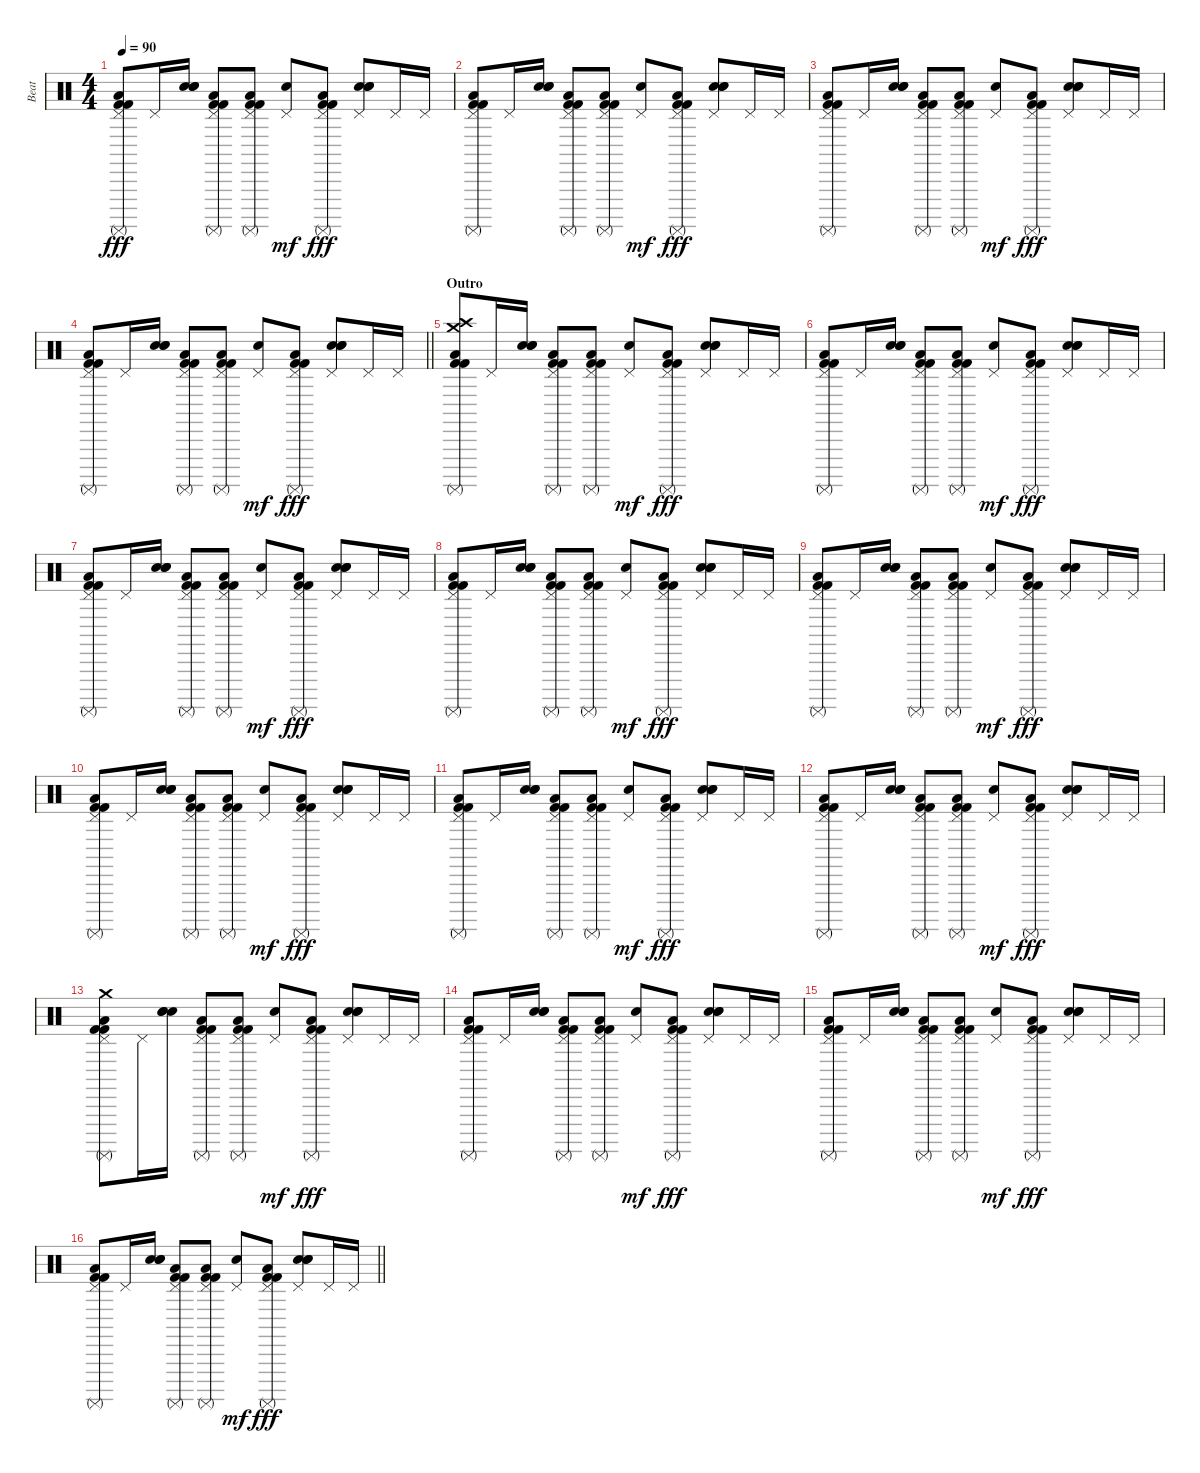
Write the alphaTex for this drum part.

\track ("Beat " "Beat ") {instrument percussion}
\staff {score}
\articulation defaults
\ts (4 4)
\tempo 90
\clef neutral
\ks c
("Pedal Hi-Hat (hit)" "Surdo (mute)" "Low Floor Tom (hit)" "Kick (hit) 2" "Kick (hit) 2").8{dy fff} "Pedal Hi-Hat (hit)".16 ("Electric Snare (hit)" "Electric Snare (hit)" "Electric Snare (hit)").16 ("Pedal Hi-Hat (hit)" "Surdo (mute)" "Low Floor Tom (hit)" "Kick (hit) 2" "Kick (hit) 2").8 ("Pedal Hi-Hat (hit)" "Surdo (mute)" "Low Floor Tom (hit)" "Kick (hit) 2" "Kick (hit) 2").8 ("Pedal Hi-Hat (hit)" "Electric Snare (hit)").8{dy mf} ("Pedal Hi-Hat (hit)" "Surdo (mute)" "Low Floor Tom (hit)" "Kick (hit) 2" "Kick (hit) 2").8{dy fff} ("Pedal Hi-Hat (hit)" "Electric Snare (hit)" "Electric Snare (hit)" "Electric Snare (hit)").8 "Pedal Hi-Hat (hit)".16 "Pedal Hi-Hat (hit)".16 |
("Pedal Hi-Hat (hit)" "Surdo (mute)" "Low Floor Tom (hit)" "Kick (hit) 2" "Kick (hit) 2").8 "Pedal Hi-Hat (hit)".16 ("Electric Snare (hit)" "Electric Snare (hit)" "Electric Snare (hit)").16 ("Pedal Hi-Hat (hit)" "Surdo (mute)" "Low Floor Tom (hit)" "Kick (hit) 2" "Kick (hit) 2").8 ("Pedal Hi-Hat (hit)" "Surdo (mute)" "Low Floor Tom (hit)" "Kick (hit) 2" "Kick (hit) 2").8 ("Pedal Hi-Hat (hit)" "Electric Snare (hit)").8{dy mf} ("Pedal Hi-Hat (hit)" "Surdo (mute)" "Low Floor Tom (hit)" "Kick (hit) 2" "Kick (hit) 2").8{dy fff} ("Pedal Hi-Hat (hit)" "Electric Snare (hit)" "Electric Snare (hit)" "Electric Snare (hit)").8 "Pedal Hi-Hat (hit)".16 "Pedal Hi-Hat (hit)".16 |
("Pedal Hi-Hat (hit)" "Surdo (mute)" "Low Floor Tom (hit)" "Kick (hit) 2" "Kick (hit) 2").8 "Pedal Hi-Hat (hit)".16 ("Electric Snare (hit)" "Electric Snare (hit)" "Electric Snare (hit)").16 ("Pedal Hi-Hat (hit)" "Surdo (mute)" "Low Floor Tom (hit)" "Kick (hit) 2" "Kick (hit) 2").8 ("Pedal Hi-Hat (hit)" "Surdo (mute)" "Low Floor Tom (hit)" "Kick (hit) 2" "Kick (hit) 2").8 ("Pedal Hi-Hat (hit)" "Electric Snare (hit)").8{dy mf} ("Pedal Hi-Hat (hit)" "Surdo (mute)" "Low Floor Tom (hit)" "Kick (hit) 2" "Kick (hit) 2").8{dy fff} ("Pedal Hi-Hat (hit)" "Electric Snare (hit)" "Electric Snare (hit)" "Electric Snare (hit)").8 "Pedal Hi-Hat (hit)".16 "Pedal Hi-Hat (hit)".16 |
\barLineRight lightlight
("Pedal Hi-Hat (hit)" "Surdo (mute)" "Low Floor Tom (hit)" "Kick (hit) 2" "Kick (hit) 2").8 "Pedal Hi-Hat (hit)".16 ("Electric Snare (hit)" "Electric Snare (hit)" "Electric Snare (hit)").16 ("Pedal Hi-Hat (hit)" "Surdo (mute)" "Low Floor Tom (hit)" "Kick (hit) 2" "Kick (hit) 2").8 ("Pedal Hi-Hat (hit)" "Surdo (mute)" "Low Floor Tom (hit)" "Kick (hit) 2" "Kick (hit) 2").8 ("Pedal Hi-Hat (hit)" "Electric Snare (hit)").8{dy mf} ("Pedal Hi-Hat (hit)" "Surdo (mute)" "Low Floor Tom (hit)" "Kick (hit) 2" "Kick (hit) 2").8{dy fff} ("Pedal Hi-Hat (hit)" "Electric Snare (hit)" "Electric Snare (hit)" "Electric Snare (hit)").8 "Pedal Hi-Hat (hit)".16 "Pedal Hi-Hat (hit)".16 |
\section ("" "Outro")
("Crash medium (hit)" "Crash high (hit)" "Surdo (mute)" "Low Floor Tom (hit)" "Kick (hit) 2" "Kick (hit) 2").8 "Pedal Hi-Hat (hit)".16 ("Electric Snare (hit)" "Electric Snare (hit)" "Electric Snare (hit)").16 ("Pedal Hi-Hat (hit)" "Surdo (mute)" "Low Floor Tom (hit)" "Kick (hit) 2" "Kick (hit) 2").8 ("Pedal Hi-Hat (hit)" "Surdo (mute)" "Low Floor Tom (hit)" "Kick (hit) 2" "Kick (hit) 2").8 ("Pedal Hi-Hat (hit)" "Electric Snare (hit)").8{dy mf} ("Pedal Hi-Hat (hit)" "Surdo (mute)" "Low Floor Tom (hit)" "Kick (hit) 2" "Kick (hit) 2").8{dy fff} ("Pedal Hi-Hat (hit)" "Electric Snare (hit)" "Electric Snare (hit)" "Electric Snare (hit)").8 "Pedal Hi-Hat (hit)".16 "Pedal Hi-Hat (hit)".16 |
("Pedal Hi-Hat (hit)" "Surdo (mute)" "Low Floor Tom (hit)" "Kick (hit) 2" "Kick (hit) 2").8 "Pedal Hi-Hat (hit)".16 ("Electric Snare (hit)" "Electric Snare (hit)" "Electric Snare (hit)").16 ("Pedal Hi-Hat (hit)" "Surdo (mute)" "Low Floor Tom (hit)" "Kick (hit) 2" "Kick (hit) 2").8 ("Pedal Hi-Hat (hit)" "Surdo (mute)" "Low Floor Tom (hit)" "Kick (hit) 2" "Kick (hit) 2").8 ("Pedal Hi-Hat (hit)" "Electric Snare (hit)").8{dy mf} ("Pedal Hi-Hat (hit)" "Surdo (mute)" "Low Floor Tom (hit)" "Kick (hit) 2" "Kick (hit) 2").8{dy fff} ("Pedal Hi-Hat (hit)" "Electric Snare (hit)" "Electric Snare (hit)" "Electric Snare (hit)").8 "Pedal Hi-Hat (hit)".16 "Pedal Hi-Hat (hit)".16 |
("Pedal Hi-Hat (hit)" "Surdo (mute)" "Low Floor Tom (hit)" "Kick (hit) 2" "Kick (hit) 2").8 "Pedal Hi-Hat (hit)".16 ("Electric Snare (hit)" "Electric Snare (hit)" "Electric Snare (hit)").16 ("Pedal Hi-Hat (hit)" "Surdo (mute)" "Low Floor Tom (hit)" "Kick (hit) 2" "Kick (hit) 2").8 ("Pedal Hi-Hat (hit)" "Surdo (mute)" "Low Floor Tom (hit)" "Kick (hit) 2" "Kick (hit) 2").8 ("Pedal Hi-Hat (hit)" "Electric Snare (hit)").8{dy mf} ("Pedal Hi-Hat (hit)" "Surdo (mute)" "Low Floor Tom (hit)" "Kick (hit) 2" "Kick (hit) 2").8{dy fff} ("Pedal Hi-Hat (hit)" "Electric Snare (hit)" "Electric Snare (hit)" "Electric Snare (hit)").8 "Pedal Hi-Hat (hit)".16 "Pedal Hi-Hat (hit)".16 |
("Pedal Hi-Hat (hit)" "Surdo (mute)" "Low Floor Tom (hit)" "Kick (hit) 2" "Kick (hit) 2").8 "Pedal Hi-Hat (hit)".16 ("Electric Snare (hit)" "Electric Snare (hit)" "Electric Snare (hit)").16 ("Pedal Hi-Hat (hit)" "Surdo (mute)" "Low Floor Tom (hit)" "Kick (hit) 2" "Kick (hit) 2").8 ("Pedal Hi-Hat (hit)" "Surdo (mute)" "Low Floor Tom (hit)" "Kick (hit) 2" "Kick (hit) 2").8 ("Pedal Hi-Hat (hit)" "Electric Snare (hit)").8{dy mf} ("Pedal Hi-Hat (hit)" "Surdo (mute)" "Low Floor Tom (hit)" "Kick (hit) 2" "Kick (hit) 2").8{dy fff} ("Pedal Hi-Hat (hit)" "Electric Snare (hit)" "Electric Snare (hit)" "Electric Snare (hit)").8 "Pedal Hi-Hat (hit)".16 "Pedal Hi-Hat (hit)".16 |
("Pedal Hi-Hat (hit)" "Surdo (mute)" "Low Floor Tom (hit)" "Kick (hit) 2" "Kick (hit) 2").8 "Pedal Hi-Hat (hit)".16 ("Electric Snare (hit)" "Electric Snare (hit)" "Electric Snare (hit)").16 ("Pedal Hi-Hat (hit)" "Surdo (mute)" "Low Floor Tom (hit)" "Kick (hit) 2" "Kick (hit) 2").8 ("Pedal Hi-Hat (hit)" "Surdo (mute)" "Low Floor Tom (hit)" "Kick (hit) 2" "Kick (hit) 2").8 ("Pedal Hi-Hat (hit)" "Electric Snare (hit)").8{dy mf} ("Pedal Hi-Hat (hit)" "Surdo (mute)" "Low Floor Tom (hit)" "Kick (hit) 2" "Kick (hit) 2").8{dy fff} ("Pedal Hi-Hat (hit)" "Electric Snare (hit)" "Electric Snare (hit)" "Electric Snare (hit)").8 "Pedal Hi-Hat (hit)".16 "Pedal Hi-Hat (hit)".16 |
("Pedal Hi-Hat (hit)" "Surdo (mute)" "Low Floor Tom (hit)" "Kick (hit) 2" "Kick (hit) 2").8 "Pedal Hi-Hat (hit)".16 ("Electric Snare (hit)" "Electric Snare (hit)" "Electric Snare (hit)").16 ("Pedal Hi-Hat (hit)" "Surdo (mute)" "Low Floor Tom (hit)" "Kick (hit) 2" "Kick (hit) 2").8 ("Pedal Hi-Hat (hit)" "Surdo (mute)" "Low Floor Tom (hit)" "Kick (hit) 2" "Kick (hit) 2").8 ("Pedal Hi-Hat (hit)" "Electric Snare (hit)").8{dy mf} ("Pedal Hi-Hat (hit)" "Surdo (mute)" "Low Floor Tom (hit)" "Kick (hit) 2" "Kick (hit) 2").8{dy fff} ("Pedal Hi-Hat (hit)" "Electric Snare (hit)" "Electric Snare (hit)" "Electric Snare (hit)").8 "Pedal Hi-Hat (hit)".16 "Pedal Hi-Hat (hit)".16 |
("Pedal Hi-Hat (hit)" "Surdo (mute)" "Low Floor Tom (hit)" "Kick (hit) 2" "Kick (hit) 2").8 "Pedal Hi-Hat (hit)".16 ("Electric Snare (hit)" "Electric Snare (hit)" "Electric Snare (hit)").16 ("Pedal Hi-Hat (hit)" "Surdo (mute)" "Low Floor Tom (hit)" "Kick (hit) 2" "Kick (hit) 2").8 ("Pedal Hi-Hat (hit)" "Surdo (mute)" "Low Floor Tom (hit)" "Kick (hit) 2" "Kick (hit) 2").8 ("Pedal Hi-Hat (hit)" "Electric Snare (hit)").8{dy mf} ("Pedal Hi-Hat (hit)" "Surdo (mute)" "Low Floor Tom (hit)" "Kick (hit) 2" "Kick (hit) 2").8{dy fff} ("Pedal Hi-Hat (hit)" "Electric Snare (hit)" "Electric Snare (hit)" "Electric Snare (hit)").8 "Pedal Hi-Hat (hit)".16 "Pedal Hi-Hat (hit)".16 |
("Pedal Hi-Hat (hit)" "Surdo (mute)" "Low Floor Tom (hit)" "Kick (hit) 2" "Kick (hit) 2").8 "Pedal Hi-Hat (hit)".16 ("Electric Snare (hit)" "Electric Snare (hit)" "Electric Snare (hit)").16 ("Pedal Hi-Hat (hit)" "Surdo (mute)" "Low Floor Tom (hit)" "Kick (hit) 2" "Kick (hit) 2").8 ("Pedal Hi-Hat (hit)" "Surdo (mute)" "Low Floor Tom (hit)" "Kick (hit) 2" "Kick (hit) 2").8 ("Pedal Hi-Hat (hit)" "Electric Snare (hit)").8{dy mf} ("Pedal Hi-Hat (hit)" "Surdo (mute)" "Low Floor Tom (hit)" "Kick (hit) 2" "Kick (hit) 2").8{dy fff} ("Pedal Hi-Hat (hit)" "Electric Snare (hit)" "Electric Snare (hit)" "Electric Snare (hit)").8 "Pedal Hi-Hat (hit)".16 "Pedal Hi-Hat (hit)".16 |
("Crash medium (hit)" "Pedal Hi-Hat (hit)" "Surdo (mute)" "Low Floor Tom (hit)" "Kick (hit) 2" "Kick (hit) 2").8 "Pedal Hi-Hat (hit)".16 ("Electric Snare (hit)" "Electric Snare (hit)" "Electric Snare (hit)").16 ("Pedal Hi-Hat (hit)" "Surdo (mute)" "Low Floor Tom (hit)" "Kick (hit) 2" "Kick (hit) 2").8 ("Pedal Hi-Hat (hit)" "Surdo (mute)" "Low Floor Tom (hit)" "Kick (hit) 2" "Kick (hit) 2").8 ("Pedal Hi-Hat (hit)" "Electric Snare (hit)").8{dy mf} ("Pedal Hi-Hat (hit)" "Surdo (mute)" "Low Floor Tom (hit)" "Kick (hit) 2" "Kick (hit) 2").8{dy fff} ("Pedal Hi-Hat (hit)" "Electric Snare (hit)" "Electric Snare (hit)" "Electric Snare (hit)").8 "Pedal Hi-Hat (hit)".16 "Pedal Hi-Hat (hit)".16 |
("Pedal Hi-Hat (hit)" "Surdo (mute)" "Low Floor Tom (hit)" "Kick (hit) 2" "Kick (hit) 2").8 "Pedal Hi-Hat (hit)".16 ("Electric Snare (hit)" "Electric Snare (hit)" "Electric Snare (hit)").16 ("Pedal Hi-Hat (hit)" "Surdo (mute)" "Low Floor Tom (hit)" "Kick (hit) 2" "Kick (hit) 2").8 ("Pedal Hi-Hat (hit)" "Surdo (mute)" "Low Floor Tom (hit)" "Kick (hit) 2" "Kick (hit) 2").8 ("Pedal Hi-Hat (hit)" "Electric Snare (hit)").8{dy mf} ("Pedal Hi-Hat (hit)" "Surdo (mute)" "Low Floor Tom (hit)" "Kick (hit) 2" "Kick (hit) 2").8{dy fff} ("Pedal Hi-Hat (hit)" "Electric Snare (hit)" "Electric Snare (hit)" "Electric Snare (hit)").8 "Pedal Hi-Hat (hit)".16 "Pedal Hi-Hat (hit)".16 |
("Pedal Hi-Hat (hit)" "Surdo (mute)" "Low Floor Tom (hit)" "Kick (hit) 2" "Kick (hit) 2").8 "Pedal Hi-Hat (hit)".16 ("Electric Snare (hit)" "Electric Snare (hit)" "Electric Snare (hit)").16 ("Pedal Hi-Hat (hit)" "Surdo (mute)" "Low Floor Tom (hit)" "Kick (hit) 2" "Kick (hit) 2").8 ("Pedal Hi-Hat (hit)" "Surdo (mute)" "Low Floor Tom (hit)" "Kick (hit) 2" "Kick (hit) 2").8 ("Pedal Hi-Hat (hit)" "Electric Snare (hit)").8{dy mf} ("Pedal Hi-Hat (hit)" "Surdo (mute)" "Low Floor Tom (hit)" "Kick (hit) 2" "Kick (hit) 2").8{dy fff} ("Pedal Hi-Hat (hit)" "Electric Snare (hit)" "Electric Snare (hit)" "Electric Snare (hit)").8 "Pedal Hi-Hat (hit)".16 "Pedal Hi-Hat (hit)".16 |
\barLineRight lightlight
("Pedal Hi-Hat (hit)" "Surdo (mute)" "Low Floor Tom (hit)" "Kick (hit) 2" "Kick (hit) 2").8 "Pedal Hi-Hat (hit)".16 ("Electric Snare (hit)" "Electric Snare (hit)" "Electric Snare (hit)").16 ("Pedal Hi-Hat (hit)" "Surdo (mute)" "Low Floor Tom (hit)" "Kick (hit) 2" "Kick (hit) 2").8 ("Pedal Hi-Hat (hit)" "Surdo (mute)" "Low Floor Tom (hit)" "Kick (hit) 2" "Kick (hit) 2").8 ("Pedal Hi-Hat (hit)" "Electric Snare (hit)").8{dy mf} ("Pedal Hi-Hat (hit)" "Surdo (mute)" "Low Floor Tom (hit)" "Kick (hit) 2" "Kick (hit) 2").8{dy fff} ("Pedal Hi-Hat (hit)" "Electric Snare (hit)" "Electric Snare (hit)" "Electric Snare (hit)").8 "Pedal Hi-Hat (hit)".16 "Pedal Hi-Hat (hit)".16
